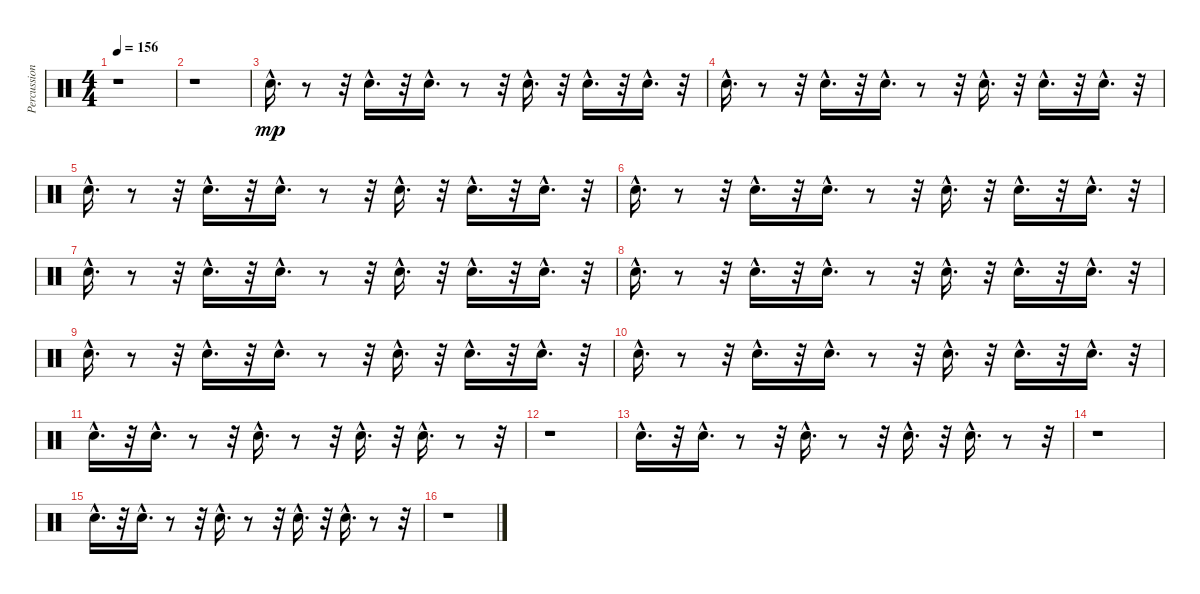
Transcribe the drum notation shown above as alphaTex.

\track ("Percussion" "Percussion") {instrument percussion}
\staff {score}
\articulation defaults
\ts (4 4)
\tempo 156
\clef neutral
\ks c
r.1{dy mp} |
r.1 |
"Snare (hit) 2"{hac}.16{d} r.8 r.32 "Snare (hit) 2"{hac}.16{d} r.32 "Snare (hit) 2"{hac}.16{d} r.8 r.32 "Snare (hit) 2"{hac}.16{d} r.32 "Snare (hit) 2"{hac}.16{d} r.32 "Snare (hit) 2"{hac}.16{d} r.32 |
"Snare (hit) 2"{hac}.16{d} r.8 r.32 "Snare (hit) 2"{hac}.16{d} r.32 "Snare (hit) 2"{hac}.16{d} r.8 r.32 "Snare (hit) 2"{hac}.16{d} r.32 "Snare (hit) 2"{hac}.16{d} r.32 "Snare (hit) 2"{hac}.16{d} r.32 |
"Snare (hit) 2"{hac}.16{d} r.8 r.32 "Snare (hit) 2"{hac}.16{d} r.32 "Snare (hit) 2"{hac}.16{d} r.8 r.32 "Snare (hit) 2"{hac}.16{d} r.32 "Snare (hit) 2"{hac}.16{d} r.32 "Snare (hit) 2"{hac}.16{d} r.32 |
"Snare (hit) 2"{hac}.16{d} r.8 r.32 "Snare (hit) 2"{hac}.16{d} r.32 "Snare (hit) 2"{hac}.16{d} r.8 r.32 "Snare (hit) 2"{hac}.16{d} r.32 "Snare (hit) 2"{hac}.16{d} r.32 "Snare (hit) 2"{hac}.16{d} r.32 |
"Snare (hit) 2"{hac}.16{d} r.8 r.32 "Snare (hit) 2"{hac}.16{d} r.32 "Snare (hit) 2"{hac}.16{d} r.8 r.32 "Snare (hit) 2"{hac}.16{d} r.32 "Snare (hit) 2"{hac}.16{d} r.32 "Snare (hit) 2"{hac}.16{d} r.32 |
"Snare (hit) 2"{hac}.16{d} r.8 r.32 "Snare (hit) 2"{hac}.16{d} r.32 "Snare (hit) 2"{hac}.16{d} r.8 r.32 "Snare (hit) 2"{hac}.16{d} r.32 "Snare (hit) 2"{hac}.16{d} r.32 "Snare (hit) 2"{hac}.16{d} r.32 |
"Snare (hit) 2"{hac}.16{d} r.8 r.32 "Snare (hit) 2"{hac}.16{d} r.32 "Snare (hit) 2"{hac}.16{d} r.8 r.32 "Snare (hit) 2"{hac}.16{d} r.32 "Snare (hit) 2"{hac}.16{d} r.32 "Snare (hit) 2"{hac}.16{d} r.32 |
"Snare (hit) 2"{hac}.16{d} r.8 r.32 "Snare (hit) 2"{hac}.16{d} r.32 "Snare (hit) 2"{hac}.16{d} r.8 r.32 "Snare (hit) 2"{hac}.16{d} r.32 "Snare (hit) 2"{hac}.16{d} r.32 "Snare (hit) 2"{hac}.16{d} r.32 |
"Snare (hit) 2"{hac}.16{d} r.32 "Snare (hit) 2"{hac}.16{d} r.8 r.32 "Snare (hit) 2"{hac}.16{d} r.8 r.32 "Snare (hit) 2"{hac}.16{d} r.32 "Snare (hit) 2"{hac}.16{d} r.8 r.32 |
r.1 |
"Snare (hit) 2"{hac}.16{d} r.32 "Snare (hit) 2"{hac}.16{d} r.8 r.32 "Snare (hit) 2"{hac}.16{d} r.8 r.32 "Snare (hit) 2"{hac}.16{d} r.32 "Snare (hit) 2"{hac}.16{d} r.8 r.32 |
r.1 |
"Snare (hit) 2"{hac}.16{d} r.32 "Snare (hit) 2"{hac}.16{d} r.8 r.32 "Snare (hit) 2"{hac}.16{d} r.8 r.32 "Snare (hit) 2"{hac}.16{d} r.32 "Snare (hit) 2"{hac}.16{d} r.8 r.32 |
r.1
